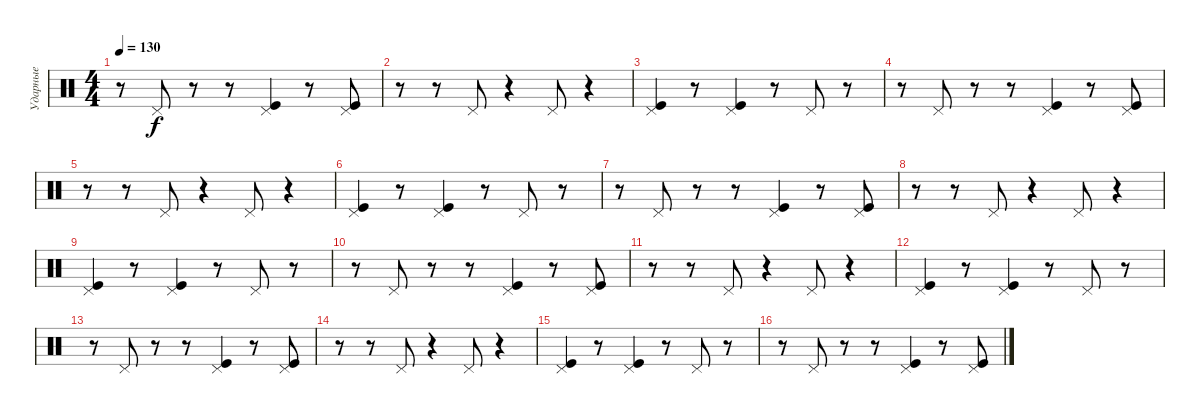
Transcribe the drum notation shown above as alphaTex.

\track ("Ударные" "Ударные") {instrument percussion}
\staff {score}
\articulation defaults
\ts (4 4)
\tempo 130
\clef neutral
\ks c
r.8{dy f} "Pedal Hi-Hat (hit)".8 r.8 r.8 ("Pedal Hi-Hat (hit)" "Kick (hit)").4 r.8 ("Pedal Hi-Hat (hit)" "Kick (hit)").8 |
r.8 r.8 "Pedal Hi-Hat (hit)".8 r.4 "Pedal Hi-Hat (hit)".8 r.4 |
("Pedal Hi-Hat (hit)" "Kick (hit)").4 r.8 ("Pedal Hi-Hat (hit)" "Kick (hit)").4 r.8 "Pedal Hi-Hat (hit)".8 r.8 |
r.8 "Pedal Hi-Hat (hit)".8 r.8 r.8 ("Pedal Hi-Hat (hit)" "Kick (hit)").4 r.8 ("Pedal Hi-Hat (hit)" "Kick (hit)").8 |
r.8 r.8 "Pedal Hi-Hat (hit)".8 r.4 "Pedal Hi-Hat (hit)".8 r.4 |
("Pedal Hi-Hat (hit)" "Kick (hit)").4 r.8 ("Pedal Hi-Hat (hit)" "Kick (hit)").4 r.8 "Pedal Hi-Hat (hit)".8 r.8 |
r.8 "Pedal Hi-Hat (hit)".8 r.8 r.8 ("Pedal Hi-Hat (hit)" "Kick (hit)").4 r.8 ("Pedal Hi-Hat (hit)" "Kick (hit)").8 |
r.8 r.8 "Pedal Hi-Hat (hit)".8 r.4 "Pedal Hi-Hat (hit)".8 r.4 |
("Pedal Hi-Hat (hit)" "Kick (hit)").4 r.8 ("Pedal Hi-Hat (hit)" "Kick (hit)").4 r.8 "Pedal Hi-Hat (hit)".8 r.8 |
r.8 "Pedal Hi-Hat (hit)".8 r.8 r.8 ("Pedal Hi-Hat (hit)" "Kick (hit)").4 r.8 ("Pedal Hi-Hat (hit)" "Kick (hit)").8 |
r.8 r.8 "Pedal Hi-Hat (hit)".8 r.4 "Pedal Hi-Hat (hit)".8 r.4 |
("Pedal Hi-Hat (hit)" "Kick (hit)").4 r.8 ("Pedal Hi-Hat (hit)" "Kick (hit)").4 r.8 "Pedal Hi-Hat (hit)".8 r.8 |
r.8 "Pedal Hi-Hat (hit)".8 r.8 r.8 ("Pedal Hi-Hat (hit)" "Kick (hit)").4 r.8 ("Pedal Hi-Hat (hit)" "Kick (hit)").8 |
r.8 r.8 "Pedal Hi-Hat (hit)".8 r.4 "Pedal Hi-Hat (hit)".8 r.4 |
("Pedal Hi-Hat (hit)" "Kick (hit)").4 r.8 ("Pedal Hi-Hat (hit)" "Kick (hit)").4 r.8 "Pedal Hi-Hat (hit)".8 r.8 |
r.8 "Pedal Hi-Hat (hit)".8 r.8 r.8 ("Pedal Hi-Hat (hit)" "Kick (hit)").4 r.8 ("Pedal Hi-Hat (hit)" "Kick (hit)").8
